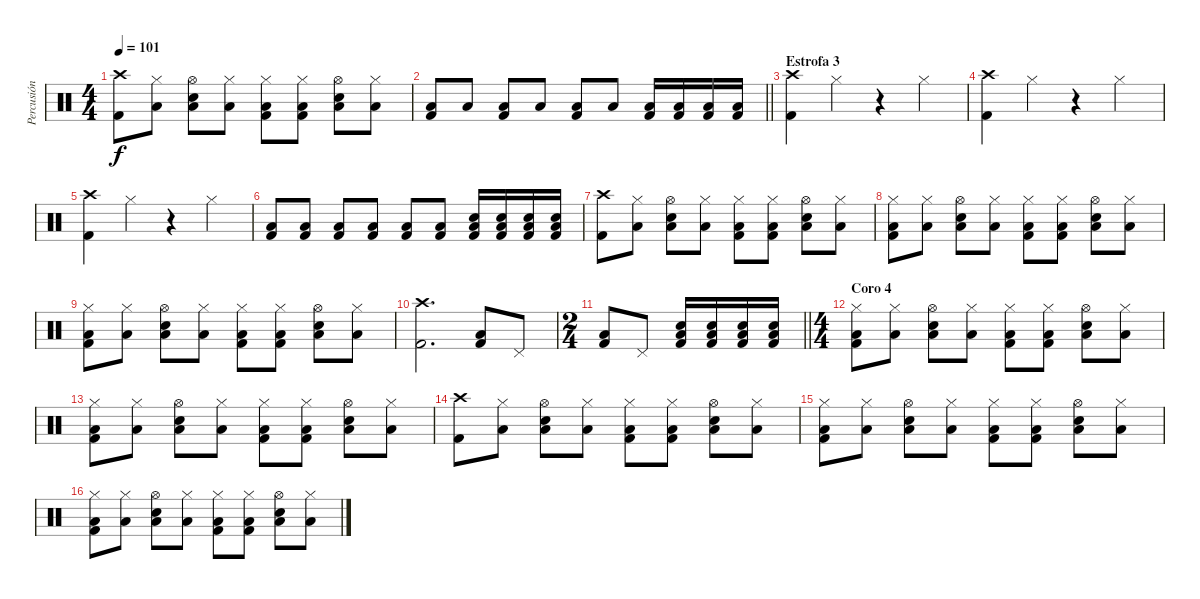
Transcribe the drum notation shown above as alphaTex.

\track ("Percusión" "Percusión") {instrument percussion}
\staff {score}
\articulation defaults
\ts (4 4)
\tempo 101
\clef neutral
\ks c
("Kick (hit) 2" "Crash high (hit)").8{dy f} ("Low Floor Tom (hit)" "Hi-Hat (closed)").8 ("Low Floor Tom (hit)" "Hi-Hat (open)" "Snare (hit) 2").8 ("Low Floor Tom (hit)" "Hi-Hat (closed)").8 ("Low Floor Tom (hit)" "Hi-Hat (closed)" "Kick (hit) 2").8 ("Low Floor Tom (hit)" "Hi-Hat (closed)" "Kick (hit) 2").8 ("Low Floor Tom (hit)" "Hi-Hat (open)" "Snare (hit) 2").8 ("Low Floor Tom (hit)" "Hi-Hat (closed)").8 |
\barLineRight lightlight
("Low Floor Tom (hit)" "Kick (hit) 2").8 "Low Floor Tom (hit)".8 ("Low Floor Tom (hit)" "Kick (hit) 2").8 "Low Floor Tom (hit)".8 ("Low Floor Tom (hit)" "Kick (hit) 2").8 "Low Floor Tom (hit)".8 ("Low Floor Tom (hit)" "Kick (hit) 2").16 ("Low Floor Tom (hit)" "Kick (hit) 2").16 ("Low Floor Tom (hit)" "Kick (hit) 2").16 ("Low Floor Tom (hit)" "Kick (hit) 2").16 |
\section ("" "Estrofa 3")
("Kick (hit) 2" "Crash high (hit)").4 "Hi-Hat (closed)".4 r.4 "Hi-Hat (closed)".4 |
("Kick (hit) 2" "Crash high (hit)").4 "Hi-Hat (closed)".4 r.4 "Hi-Hat (closed)".4 |
("Kick (hit) 2" "Crash high (hit)").4 "Hi-Hat (closed)".4 r.4 "Hi-Hat (closed)".4 |
("Low Floor Tom (hit)" "Kick (hit) 2").8 ("Low Floor Tom (hit)" "Kick (hit) 2").8 ("Low Floor Tom (hit)" "Kick (hit) 2").8 ("Low Floor Tom (hit)" "Kick (hit) 2").8 ("Low Floor Tom (hit)" "Kick (hit) 2").8 ("Low Floor Tom (hit)" "Kick (hit) 2").8 ("Snare (hit) 2" "Low Floor Tom (hit)" "Kick (hit) 2").16 ("Snare (hit) 2" "Low Floor Tom (hit)" "Kick (hit) 2").16 ("Snare (hit) 2" "Low Floor Tom (hit)" "Kick (hit) 2").16 ("Snare (hit) 2" "Low Floor Tom (hit)" "Kick (hit) 2").16 |
("Kick (hit) 2" "Crash high (hit)").8 ("Low Floor Tom (hit)" "Hi-Hat (closed)").8 ("Low Floor Tom (hit)" "Hi-Hat (open)" "Snare (hit) 2").8 ("Low Floor Tom (hit)" "Hi-Hat (closed)").8 ("Low Floor Tom (hit)" "Hi-Hat (closed)" "Kick (hit) 2").8 ("Low Floor Tom (hit)" "Hi-Hat (closed)" "Kick (hit) 2").8 ("Low Floor Tom (hit)" "Hi-Hat (open)" "Snare (hit) 2").8 ("Low Floor Tom (hit)" "Hi-Hat (closed)").8 |
("Low Floor Tom (hit)" "Hi-Hat (closed)" "Kick (hit) 2").8 ("Low Floor Tom (hit)" "Hi-Hat (closed)").8 ("Low Floor Tom (hit)" "Hi-Hat (open)" "Snare (hit) 2").8 ("Low Floor Tom (hit)" "Hi-Hat (closed)").8 ("Low Floor Tom (hit)" "Hi-Hat (closed)" "Kick (hit) 2").8 ("Low Floor Tom (hit)" "Hi-Hat (closed)" "Kick (hit) 2").8 ("Low Floor Tom (hit)" "Hi-Hat (open)" "Snare (hit) 2").8 ("Low Floor Tom (hit)" "Hi-Hat (closed)").8 |
("Low Floor Tom (hit)" "Hi-Hat (closed)" "Kick (hit) 2").8 ("Low Floor Tom (hit)" "Hi-Hat (closed)").8 ("Low Floor Tom (hit)" "Hi-Hat (open)" "Snare (hit) 2").8 ("Low Floor Tom (hit)" "Hi-Hat (closed)").8 ("Low Floor Tom (hit)" "Hi-Hat (closed)" "Kick (hit) 2").8 ("Low Floor Tom (hit)" "Hi-Hat (closed)" "Kick (hit) 2").8 ("Low Floor Tom (hit)" "Hi-Hat (open)" "Snare (hit) 2").8 ("Low Floor Tom (hit)" "Hi-Hat (closed)").8 |
("Kick (hit) 2" "Crash high (hit)").2{d} ("Low Floor Tom (hit)" "Kick (hit) 2").8 "Pedal Hi-Hat (hit)".8 |
\ts (2 4)
\barLineRight lightlight
("Low Floor Tom (hit)" "Kick (hit) 2").8 "Pedal Hi-Hat (hit)".8 ("Snare (hit) 2" "Low Floor Tom (hit)" "Kick (hit) 2").16 ("Snare (hit) 2" "Low Floor Tom (hit)" "Kick (hit) 2").16 ("Snare (hit) 2" "Low Floor Tom (hit)" "Kick (hit) 2").16 ("Snare (hit) 2" "Low Floor Tom (hit)" "Kick (hit) 2").16 |
\ts (4 4)
\section ("" "Coro 4")
("Low Floor Tom (hit)" "Hi-Hat (closed)" "Kick (hit) 2").8 ("Low Floor Tom (hit)" "Hi-Hat (closed)").8 ("Low Floor Tom (hit)" "Hi-Hat (open)" "Snare (hit) 2").8 ("Low Floor Tom (hit)" "Hi-Hat (closed)").8 ("Low Floor Tom (hit)" "Hi-Hat (closed)" "Kick (hit) 2").8 ("Low Floor Tom (hit)" "Hi-Hat (closed)" "Kick (hit) 2").8 ("Low Floor Tom (hit)" "Hi-Hat (open)" "Snare (hit) 2").8 ("Low Floor Tom (hit)" "Hi-Hat (closed)").8 |
("Low Floor Tom (hit)" "Hi-Hat (closed)" "Kick (hit) 2").8 ("Low Floor Tom (hit)" "Hi-Hat (closed)").8 ("Low Floor Tom (hit)" "Hi-Hat (open)" "Snare (hit) 2").8 ("Low Floor Tom (hit)" "Hi-Hat (closed)").8 ("Low Floor Tom (hit)" "Hi-Hat (closed)" "Kick (hit) 2").8 ("Low Floor Tom (hit)" "Hi-Hat (closed)" "Kick (hit) 2").8 ("Low Floor Tom (hit)" "Hi-Hat (open)" "Snare (hit) 2").8 ("Low Floor Tom (hit)" "Hi-Hat (closed)").8 |
("Kick (hit) 2" "Crash high (hit)").8 ("Low Floor Tom (hit)" "Hi-Hat (closed)").8 ("Low Floor Tom (hit)" "Hi-Hat (open)" "Snare (hit) 2").8 ("Low Floor Tom (hit)" "Hi-Hat (closed)").8 ("Low Floor Tom (hit)" "Hi-Hat (closed)" "Kick (hit) 2").8 ("Low Floor Tom (hit)" "Hi-Hat (closed)" "Kick (hit) 2").8 ("Low Floor Tom (hit)" "Hi-Hat (open)" "Snare (hit) 2").8 ("Low Floor Tom (hit)" "Hi-Hat (closed)").8 |
("Low Floor Tom (hit)" "Hi-Hat (closed)" "Kick (hit) 2").8 ("Low Floor Tom (hit)" "Hi-Hat (closed)").8 ("Low Floor Tom (hit)" "Hi-Hat (open)" "Snare (hit) 2").8 ("Low Floor Tom (hit)" "Hi-Hat (closed)").8 ("Low Floor Tom (hit)" "Hi-Hat (closed)" "Kick (hit) 2").8 ("Low Floor Tom (hit)" "Hi-Hat (closed)" "Kick (hit) 2").8 ("Low Floor Tom (hit)" "Hi-Hat (open)" "Snare (hit) 2").8 ("Low Floor Tom (hit)" "Hi-Hat (closed)").8 |
("Low Floor Tom (hit)" "Hi-Hat (closed)" "Kick (hit) 2").8 ("Low Floor Tom (hit)" "Hi-Hat (closed)").8 ("Low Floor Tom (hit)" "Hi-Hat (open)" "Snare (hit) 2").8 ("Low Floor Tom (hit)" "Hi-Hat (closed)").8 ("Low Floor Tom (hit)" "Hi-Hat (closed)" "Kick (hit) 2").8 ("Low Floor Tom (hit)" "Hi-Hat (closed)" "Kick (hit) 2").8 ("Low Floor Tom (hit)" "Hi-Hat (open)" "Snare (hit) 2").8 ("Low Floor Tom (hit)" "Hi-Hat (closed)").8
